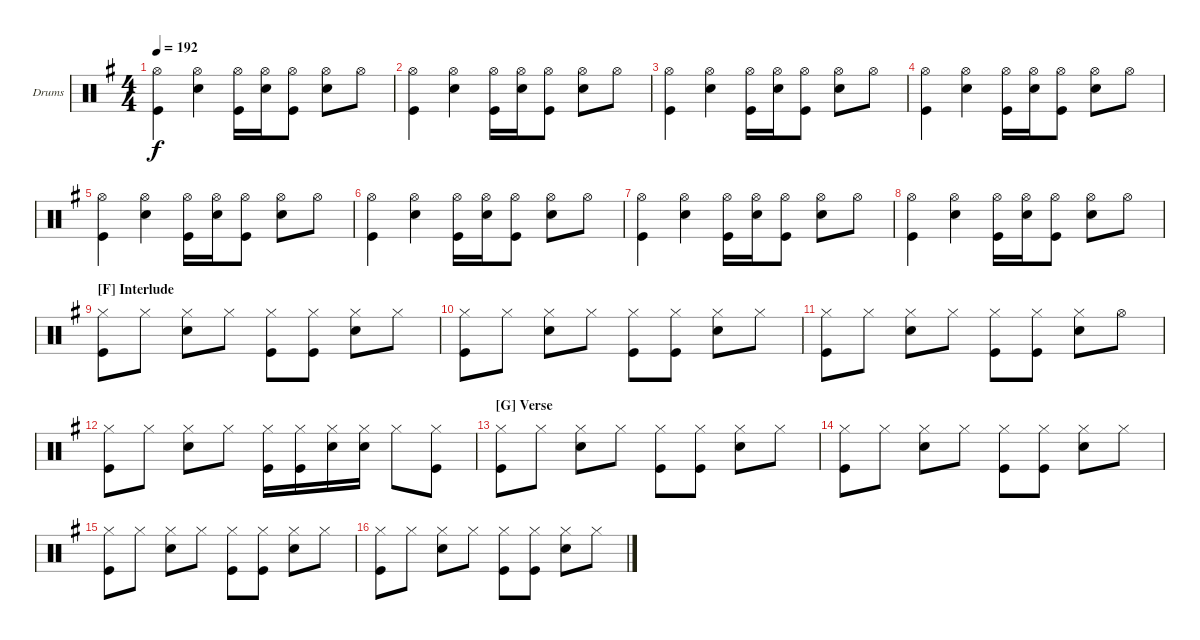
\defaultSystemsLayout 4
\bracketExtendMode groupsimilarinstruments
\firstSystemTrackNameOrientation horizontal
\otherSystemsTrackNameOrientation horizontal
\track ("Drumkit" "Drums") {instrument percussion}
\staff {score}
\articulation defaults
\ts (4 4)
\tempo 192
\clef neutral
\scale
1.04288
\ks g
("Hi-Hat (open)" "Kick (hit)").4{dy f} ("Hi-Hat (open)" "Snare (hit) 2").4 ("Hi-Hat (open)" "Kick (hit)").16 ("Hi-Hat (open)" "Snare (hit) 2").16 ("Hi-Hat (open)" "Kick (hit)").8 ("Hi-Hat (open)" "Snare (hit) 2").8 "Hi-Hat (open)".8 |
\scale
0.957125 ("Hi-Hat (open)" "Kick (hit)").4 ("Hi-Hat (open)" "Snare (hit) 2").4 ("Hi-Hat (open)" "Kick (hit)").16 ("Hi-Hat (open)" "Snare (hit) 2").16 ("Hi-Hat (open)" "Kick (hit)").8 ("Hi-Hat (open)" "Snare (hit) 2").8 "Hi-Hat (open)".8 |
\scale
1.04288 ("Hi-Hat (open)" "Kick (hit)").4 ("Hi-Hat (open)" "Snare (hit) 2").4 ("Hi-Hat (open)" "Kick (hit)").16 ("Hi-Hat (open)" "Snare (hit) 2").16 ("Hi-Hat (open)" "Kick (hit)").8 ("Hi-Hat (open)" "Snare (hit) 2").8 "Hi-Hat (open)".8 |
\scale
0.957125 ("Hi-Hat (open)" "Kick (hit)").4 ("Hi-Hat (open)" "Snare (hit) 2").4 ("Hi-Hat (open)" "Kick (hit)").16 ("Hi-Hat (open)" "Snare (hit) 2").16 ("Hi-Hat (open)" "Kick (hit)").8 ("Hi-Hat (open)" "Snare (hit) 2").8 "Hi-Hat (open)".8 |
\scale
1.04288 ("Hi-Hat (open)" "Kick (hit)").4 ("Hi-Hat (open)" "Snare (hit) 2").4 ("Hi-Hat (open)" "Kick (hit)").16 ("Hi-Hat (open)" "Snare (hit) 2").16 ("Hi-Hat (open)" "Kick (hit)").8 ("Hi-Hat (open)" "Snare (hit) 2").8 "Hi-Hat (open)".8 |
\scale
0.957125 ("Hi-Hat (open)" "Kick (hit)").4 ("Hi-Hat (open)" "Snare (hit) 2").4 ("Hi-Hat (open)" "Kick (hit)").16 ("Hi-Hat (open)" "Snare (hit) 2").16 ("Hi-Hat (open)" "Kick (hit)").8 ("Hi-Hat (open)" "Snare (hit) 2").8 "Hi-Hat (open)".8 |
\scale
1.04288 ("Hi-Hat (open)" "Kick (hit)").4 ("Hi-Hat (open)" "Snare (hit) 2").4 ("Hi-Hat (open)" "Kick (hit)").16 ("Hi-Hat (open)" "Snare (hit) 2").16 ("Hi-Hat (open)" "Kick (hit)").8 ("Hi-Hat (open)" "Snare (hit) 2").8 "Hi-Hat (open)".8 |
\scale
0.957125 ("Hi-Hat (open)" "Kick (hit)").4 ("Hi-Hat (open)" "Snare (hit) 2").4 ("Hi-Hat (open)" "Kick (hit)").16 ("Hi-Hat (open)" "Snare (hit) 2").16 ("Hi-Hat (open)" "Kick (hit)").8 ("Hi-Hat (open)" "Snare (hit) 2").8 "Hi-Hat (open)".8 |
\section ("F" "Interlude")
\scale
1.04288 ("Hi-Hat (closed)" "Kick (hit)").8 "Hi-Hat (closed)".8 ("Hi-Hat (closed)" "Snare (hit) 2").8 "Hi-Hat (closed)".8 ("Hi-Hat (closed)" "Kick (hit)").8 ("Hi-Hat (closed)" "Kick (hit)").8 ("Hi-Hat (closed)" "Snare (hit) 2").8 "Hi-Hat (closed)".8 |
\scale
0.957125 ("Hi-Hat (closed)" "Kick (hit)").8 "Hi-Hat (closed)".8 ("Hi-Hat (closed)" "Snare (hit) 2").8 "Hi-Hat (closed)".8 ("Hi-Hat (closed)" "Kick (hit)").8 ("Hi-Hat (closed)" "Kick (hit)").8 ("Hi-Hat (closed)" "Snare (hit) 2").8 "Hi-Hat (closed)".8 |
\scale
1.04288 ("Hi-Hat (closed)" "Kick (hit)").8 "Hi-Hat (closed)".8 ("Hi-Hat (closed)" "Snare (hit) 2").8 "Hi-Hat (closed)".8 ("Hi-Hat (closed)" "Kick (hit)").8 ("Hi-Hat (closed)" "Kick (hit)").8 ("Hi-Hat (closed)" "Snare (hit) 2").8 "Hi-Hat (open)".8 |
\scale
0.957125 ("Hi-Hat (closed)" "Kick (hit)").8 "Hi-Hat (closed)".8 ("Hi-Hat (closed)" "Snare (hit) 2").8 "Hi-Hat (closed)".8 ("Hi-Hat (closed)" "Kick (hit)").16 ("Hi-Hat (closed)" "Kick (hit)").16 ("Hi-Hat (closed)" "Snare (hit) 2").16 ("Hi-Hat (closed)" "Snare (hit) 2").16 "Hi-Hat (closed)".8 ("Hi-Hat (closed)" "Kick (hit)").8 |
\section ("G" "Verse")
\scale
1.04288 ("Hi-Hat (closed)" "Kick (hit)").8 "Hi-Hat (closed)".8 ("Hi-Hat (closed)" "Snare (hit) 2").8 "Hi-Hat (closed)".8 ("Hi-Hat (closed)" "Kick (hit)").8 ("Hi-Hat (closed)" "Kick (hit)").8 ("Hi-Hat (closed)" "Snare (hit) 2").8 "Hi-Hat (closed)".8 |
\scale
0.957125 ("Hi-Hat (closed)" "Kick (hit)").8 "Hi-Hat (closed)".8 ("Hi-Hat (closed)" "Snare (hit) 2").8 "Hi-Hat (closed)".8 ("Hi-Hat (closed)" "Kick (hit)").8 ("Hi-Hat (closed)" "Kick (hit)").8 ("Hi-Hat (closed)" "Snare (hit) 2").8 "Hi-Hat (closed)".8 |
\scale
1.04288 ("Hi-Hat (closed)" "Kick (hit)").8 "Hi-Hat (closed)".8 ("Hi-Hat (closed)" "Snare (hit) 2").8 "Hi-Hat (closed)".8 ("Hi-Hat (closed)" "Kick (hit)").8 ("Hi-Hat (closed)" "Kick (hit)").8 ("Hi-Hat (closed)" "Snare (hit) 2").8 "Hi-Hat (closed)".8 |
\scale
0.957125 ("Hi-Hat (closed)" "Kick (hit)").8 "Hi-Hat (closed)".8 ("Hi-Hat (closed)" "Snare (hit) 2").8 "Hi-Hat (closed)".8 ("Hi-Hat (closed)" "Kick (hit)").8 ("Hi-Hat (closed)" "Kick (hit)").8 ("Hi-Hat (closed)" "Snare (hit) 2").8 "Hi-Hat (closed)".8
